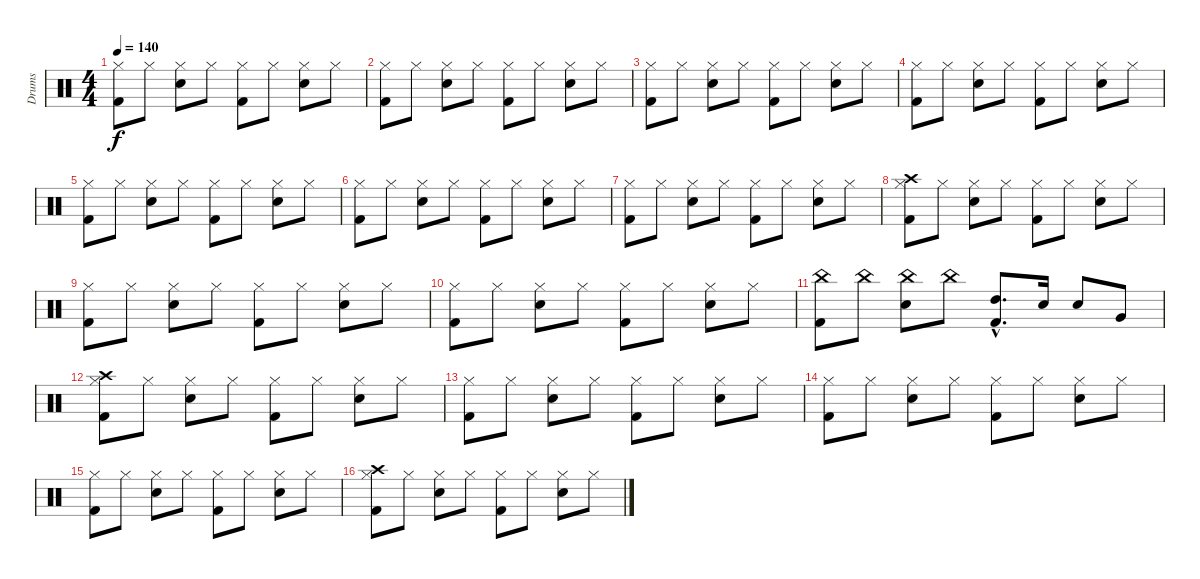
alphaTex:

\track ("Drums" "Drums") {instrument percussion}
\staff {score}
\articulation defaults
\ts (4 4)
\tempo 140
\clef neutral
\ks c
("Hi-Hat (closed)" "Kick (hit) 2").8{dy f} "Hi-Hat (closed)".8 ("Hi-Hat (closed)" "Electric Snare (hit)").8 "Hi-Hat (closed)".8 ("Hi-Hat (closed)" "Kick (hit) 2").8 "Hi-Hat (closed)".8 ("Hi-Hat (closed)" "Electric Snare (hit)").8 "Hi-Hat (closed)".8 |
("Hi-Hat (closed)" "Kick (hit) 2").8 "Hi-Hat (closed)".8 ("Hi-Hat (closed)" "Electric Snare (hit)").8 "Hi-Hat (closed)".8 ("Hi-Hat (closed)" "Kick (hit) 2").8 "Hi-Hat (closed)".8 ("Hi-Hat (closed)" "Electric Snare (hit)").8 "Hi-Hat (closed)".8 |
("Hi-Hat (closed)" "Kick (hit) 2").8 "Hi-Hat (closed)".8 ("Hi-Hat (closed)" "Electric Snare (hit)").8 "Hi-Hat (closed)".8 ("Hi-Hat (closed)" "Kick (hit) 2").8 "Hi-Hat (closed)".8 ("Hi-Hat (closed)" "Electric Snare (hit)").8 "Hi-Hat (closed)".8 |
("Hi-Hat (closed)" "Kick (hit) 2").8 "Hi-Hat (closed)".8 ("Hi-Hat (closed)" "Electric Snare (hit)").8 "Hi-Hat (closed)".8 ("Hi-Hat (closed)" "Kick (hit) 2").8 "Hi-Hat (closed)".8 ("Hi-Hat (closed)" "Electric Snare (hit)").8 "Hi-Hat (closed)".8 |
("Hi-Hat (closed)" "Kick (hit) 2").8 "Hi-Hat (closed)".8 ("Hi-Hat (closed)" "Electric Snare (hit)").8 "Hi-Hat (closed)".8 ("Hi-Hat (closed)" "Kick (hit) 2").8 "Hi-Hat (closed)".8 ("Hi-Hat (closed)" "Electric Snare (hit)").8 "Hi-Hat (closed)".8 |
("Hi-Hat (closed)" "Kick (hit) 2").8 "Hi-Hat (closed)".8 ("Hi-Hat (closed)" "Electric Snare (hit)").8 "Hi-Hat (closed)".8 ("Hi-Hat (closed)" "Kick (hit) 2").8 "Hi-Hat (closed)".8 ("Hi-Hat (closed)" "Electric Snare (hit)").8 "Hi-Hat (closed)".8 |
("Hi-Hat (closed)" "Kick (hit) 2").8 "Hi-Hat (closed)".8 ("Hi-Hat (closed)" "Electric Snare (hit)").8 "Hi-Hat (closed)".8 ("Hi-Hat (closed)" "Kick (hit) 2").8 "Hi-Hat (closed)".8 ("Hi-Hat (closed)" "Electric Snare (hit)").8 "Hi-Hat (closed)".8 |
("Hi-Hat (closed)" "Kick (hit) 2" "Crash high (hit)").8 "Hi-Hat (closed)".8 ("Hi-Hat (closed)" "Electric Snare (hit)").8 "Hi-Hat (closed)".8 ("Hi-Hat (closed)" "Kick (hit) 2").8 "Hi-Hat (closed)".8 ("Hi-Hat (closed)" "Electric Snare (hit)").8 "Hi-Hat (closed)".8 |
("Hi-Hat (closed)" "Kick (hit) 2").8 "Hi-Hat (closed)".8 ("Hi-Hat (closed)" "Electric Snare (hit)").8 "Hi-Hat (closed)".8 ("Hi-Hat (closed)" "Kick (hit) 2").8 "Hi-Hat (closed)".8 ("Hi-Hat (closed)" "Electric Snare (hit)").8 "Hi-Hat (closed)".8 |
("Hi-Hat (closed)" "Kick (hit) 2").8 "Hi-Hat (closed)".8 ("Hi-Hat (closed)" "Electric Snare (hit)").8 "Hi-Hat (closed)".8 ("Hi-Hat (closed)" "Kick (hit) 2").8 "Hi-Hat (closed)".8 ("Hi-Hat (closed)" "Electric Snare (hit)").8 "Hi-Hat (closed)".8 |
("China (hit)" "Kick (hit) 2").8 "China (hit)".8 ("China (hit)" "Electric Snare (hit)").8 "China (hit)".8 ("High Tom (hit)"{hac} "Kick (hit) 2"{hac}).8{d} "Electric Snare (hit)".16 "Electric Snare (hit)".8 "Very Low Tom (hit)".8 |
("Hi-Hat (closed)" "Kick (hit) 2" "Crash high (hit)").8 "Hi-Hat (closed)".8 ("Hi-Hat (closed)" "Electric Snare (hit)").8 "Hi-Hat (closed)".8 ("Hi-Hat (closed)" "Kick (hit) 2").8 "Hi-Hat (closed)".8 ("Hi-Hat (closed)" "Electric Snare (hit)").8 "Hi-Hat (closed)".8 |
("Hi-Hat (closed)" "Kick (hit) 2").8 "Hi-Hat (closed)".8 ("Hi-Hat (closed)" "Electric Snare (hit)").8 "Hi-Hat (closed)".8 ("Hi-Hat (closed)" "Kick (hit) 2").8 "Hi-Hat (closed)".8 ("Hi-Hat (closed)" "Electric Snare (hit)").8 "Hi-Hat (closed)".8 |
("Hi-Hat (closed)" "Kick (hit) 2").8 "Hi-Hat (closed)".8 ("Hi-Hat (closed)" "Electric Snare (hit)").8 "Hi-Hat (closed)".8 ("Hi-Hat (closed)" "Kick (hit) 2").8 "Hi-Hat (closed)".8 ("Hi-Hat (closed)" "Electric Snare (hit)").8 "Hi-Hat (closed)".8 |
("Hi-Hat (closed)" "Kick (hit) 2").8 "Hi-Hat (closed)".8 ("Hi-Hat (closed)" "Electric Snare (hit)").8 "Hi-Hat (closed)".8 ("Hi-Hat (closed)" "Kick (hit) 2").8 "Hi-Hat (closed)".8 ("Hi-Hat (closed)" "Electric Snare (hit)").8 "Hi-Hat (closed)".8 |
("Hi-Hat (closed)" "Kick (hit) 2" "Crash high (hit)").8 "Hi-Hat (closed)".8 ("Hi-Hat (closed)" "Electric Snare (hit)").8 "Hi-Hat (closed)".8 ("Hi-Hat (closed)" "Kick (hit) 2").8 "Hi-Hat (closed)".8 ("Hi-Hat (closed)" "Electric Snare (hit)").8 "Hi-Hat (closed)".8
